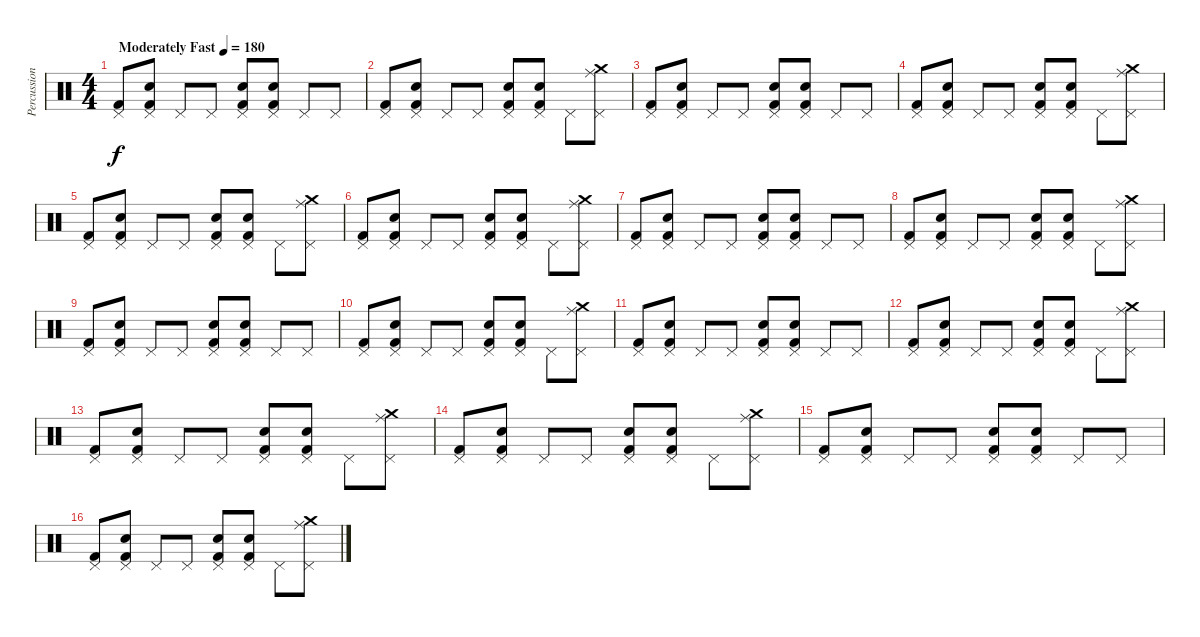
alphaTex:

\track ("Percussion" "Percussion") {instrument percussion}
\staff {score}
\articulation defaults
\ts (4 4)
\tempo (180 "Moderately Fast")
\clef neutral
\ks c
("Pedal Hi-Hat (hit)" "Kick (hit) 2").8{dy f} ("Pedal Hi-Hat (hit)" "Snare (hit) 2" "Kick (hit) 2").8 "Pedal Hi-Hat (hit)".8 "Pedal Hi-Hat (hit)".8 ("Pedal Hi-Hat (hit)" "Snare (hit) 2" "Kick (hit) 2").8 ("Pedal Hi-Hat (hit)" "Snare (hit) 2" "Kick (hit) 2").8 "Pedal Hi-Hat (hit)".8 "Pedal Hi-Hat (hit)".8 |
("Pedal Hi-Hat (hit)" "Kick (hit) 2").8 ("Pedal Hi-Hat (hit)" "Snare (hit) 2" "Kick (hit) 2").8 "Pedal Hi-Hat (hit)".8 "Pedal Hi-Hat (hit)".8 ("Pedal Hi-Hat (hit)" "Snare (hit) 2" "Kick (hit) 2").8 ("Pedal Hi-Hat (hit)" "Snare (hit) 2" "Kick (hit) 2").8 "Pedal Hi-Hat (hit)".8 ("Pedal Hi-Hat (hit)" "Ride (middle)" "Crash medium (hit)").8 |
("Pedal Hi-Hat (hit)" "Kick (hit) 2").8 ("Pedal Hi-Hat (hit)" "Snare (hit) 2" "Kick (hit) 2").8 "Pedal Hi-Hat (hit)".8 "Pedal Hi-Hat (hit)".8 ("Pedal Hi-Hat (hit)" "Snare (hit) 2" "Kick (hit) 2").8 ("Pedal Hi-Hat (hit)" "Snare (hit) 2" "Kick (hit) 2").8 "Pedal Hi-Hat (hit)".8 "Pedal Hi-Hat (hit)".8 |
("Pedal Hi-Hat (hit)" "Kick (hit) 2").8 ("Pedal Hi-Hat (hit)" "Snare (hit) 2" "Kick (hit) 2").8 "Pedal Hi-Hat (hit)".8 "Pedal Hi-Hat (hit)".8 ("Pedal Hi-Hat (hit)" "Snare (hit) 2" "Kick (hit) 2").8 ("Pedal Hi-Hat (hit)" "Snare (hit) 2" "Kick (hit) 2").8 "Pedal Hi-Hat (hit)".8 ("Pedal Hi-Hat (hit)" "Ride (middle)" "Crash medium (hit)").8 |
("Pedal Hi-Hat (hit)" "Kick (hit) 2").8 ("Pedal Hi-Hat (hit)" "Snare (hit) 2" "Kick (hit) 2").8 "Pedal Hi-Hat (hit)".8 "Pedal Hi-Hat (hit)".8 ("Pedal Hi-Hat (hit)" "Snare (hit) 2" "Kick (hit) 2").8 ("Pedal Hi-Hat (hit)" "Snare (hit) 2" "Kick (hit) 2").8 "Pedal Hi-Hat (hit)".8 ("Pedal Hi-Hat (hit)" "Ride (middle)" "Crash medium (hit)").8 |
("Pedal Hi-Hat (hit)" "Kick (hit) 2").8 ("Pedal Hi-Hat (hit)" "Snare (hit) 2" "Kick (hit) 2").8 "Pedal Hi-Hat (hit)".8 "Pedal Hi-Hat (hit)".8 ("Pedal Hi-Hat (hit)" "Snare (hit) 2" "Kick (hit) 2").8 ("Pedal Hi-Hat (hit)" "Snare (hit) 2" "Kick (hit) 2").8 "Pedal Hi-Hat (hit)".8 ("Pedal Hi-Hat (hit)" "Ride (middle)" "Crash medium (hit)").8 |
("Pedal Hi-Hat (hit)" "Kick (hit) 2").8 ("Pedal Hi-Hat (hit)" "Snare (hit) 2" "Kick (hit) 2").8 "Pedal Hi-Hat (hit)".8 "Pedal Hi-Hat (hit)".8 ("Pedal Hi-Hat (hit)" "Snare (hit) 2" "Kick (hit) 2").8 ("Pedal Hi-Hat (hit)" "Snare (hit) 2" "Kick (hit) 2").8 "Pedal Hi-Hat (hit)".8 "Pedal Hi-Hat (hit)".8 |
("Pedal Hi-Hat (hit)" "Kick (hit) 2").8 ("Pedal Hi-Hat (hit)" "Snare (hit) 2" "Kick (hit) 2").8 "Pedal Hi-Hat (hit)".8 "Pedal Hi-Hat (hit)".8 ("Pedal Hi-Hat (hit)" "Snare (hit) 2" "Kick (hit) 2").8 ("Pedal Hi-Hat (hit)" "Snare (hit) 2" "Kick (hit) 2").8 "Pedal Hi-Hat (hit)".8 ("Pedal Hi-Hat (hit)" "Ride (middle)" "Crash medium (hit)").8 |
("Pedal Hi-Hat (hit)" "Kick (hit) 2").8 ("Pedal Hi-Hat (hit)" "Snare (hit) 2" "Kick (hit) 2").8 "Pedal Hi-Hat (hit)".8 "Pedal Hi-Hat (hit)".8 ("Pedal Hi-Hat (hit)" "Snare (hit) 2" "Kick (hit) 2").8 ("Pedal Hi-Hat (hit)" "Snare (hit) 2" "Kick (hit) 2").8 "Pedal Hi-Hat (hit)".8 "Pedal Hi-Hat (hit)".8 |
("Pedal Hi-Hat (hit)" "Kick (hit) 2").8 ("Pedal Hi-Hat (hit)" "Snare (hit) 2" "Kick (hit) 2").8 "Pedal Hi-Hat (hit)".8 "Pedal Hi-Hat (hit)".8 ("Pedal Hi-Hat (hit)" "Snare (hit) 2" "Kick (hit) 2").8 ("Pedal Hi-Hat (hit)" "Snare (hit) 2" "Kick (hit) 2").8 "Pedal Hi-Hat (hit)".8 ("Pedal Hi-Hat (hit)" "Ride (middle)" "Crash medium (hit)").8 |
("Pedal Hi-Hat (hit)" "Kick (hit) 2").8 ("Pedal Hi-Hat (hit)" "Snare (hit) 2" "Kick (hit) 2").8 "Pedal Hi-Hat (hit)".8 "Pedal Hi-Hat (hit)".8 ("Pedal Hi-Hat (hit)" "Snare (hit) 2" "Kick (hit) 2").8 ("Pedal Hi-Hat (hit)" "Snare (hit) 2" "Kick (hit) 2").8 "Pedal Hi-Hat (hit)".8 "Pedal Hi-Hat (hit)".8 |
("Pedal Hi-Hat (hit)" "Kick (hit) 2").8 ("Pedal Hi-Hat (hit)" "Snare (hit) 2" "Kick (hit) 2").8 "Pedal Hi-Hat (hit)".8 "Pedal Hi-Hat (hit)".8 ("Pedal Hi-Hat (hit)" "Snare (hit) 2" "Kick (hit) 2").8 ("Pedal Hi-Hat (hit)" "Snare (hit) 2" "Kick (hit) 2").8 "Pedal Hi-Hat (hit)".8 ("Pedal Hi-Hat (hit)" "Ride (middle)" "Crash medium (hit)").8 |
("Pedal Hi-Hat (hit)" "Kick (hit) 2").8 ("Pedal Hi-Hat (hit)" "Snare (hit) 2" "Kick (hit) 2").8 "Pedal Hi-Hat (hit)".8 "Pedal Hi-Hat (hit)".8 ("Pedal Hi-Hat (hit)" "Snare (hit) 2" "Kick (hit) 2").8 ("Pedal Hi-Hat (hit)" "Snare (hit) 2" "Kick (hit) 2").8 "Pedal Hi-Hat (hit)".8 ("Pedal Hi-Hat (hit)" "Ride (middle)" "Crash medium (hit)").8 |
("Pedal Hi-Hat (hit)" "Kick (hit) 2").8 ("Pedal Hi-Hat (hit)" "Snare (hit) 2" "Kick (hit) 2").8 "Pedal Hi-Hat (hit)".8 "Pedal Hi-Hat (hit)".8 ("Pedal Hi-Hat (hit)" "Snare (hit) 2" "Kick (hit) 2").8 ("Pedal Hi-Hat (hit)" "Snare (hit) 2" "Kick (hit) 2").8 "Pedal Hi-Hat (hit)".8 ("Pedal Hi-Hat (hit)" "Ride (middle)" "Crash medium (hit)").8 |
("Pedal Hi-Hat (hit)" "Kick (hit) 2").8 ("Pedal Hi-Hat (hit)" "Snare (hit) 2" "Kick (hit) 2").8 "Pedal Hi-Hat (hit)".8 "Pedal Hi-Hat (hit)".8 ("Pedal Hi-Hat (hit)" "Snare (hit) 2" "Kick (hit) 2").8 ("Pedal Hi-Hat (hit)" "Snare (hit) 2" "Kick (hit) 2").8 "Pedal Hi-Hat (hit)".8 "Pedal Hi-Hat (hit)".8 |
("Pedal Hi-Hat (hit)" "Kick (hit) 2").8 ("Pedal Hi-Hat (hit)" "Snare (hit) 2" "Kick (hit) 2").8 "Pedal Hi-Hat (hit)".8 "Pedal Hi-Hat (hit)".8 ("Pedal Hi-Hat (hit)" "Snare (hit) 2" "Kick (hit) 2").8 ("Pedal Hi-Hat (hit)" "Snare (hit) 2" "Kick (hit) 2").8 "Pedal Hi-Hat (hit)".8 ("Pedal Hi-Hat (hit)" "Ride (middle)" "Crash medium (hit)").8
